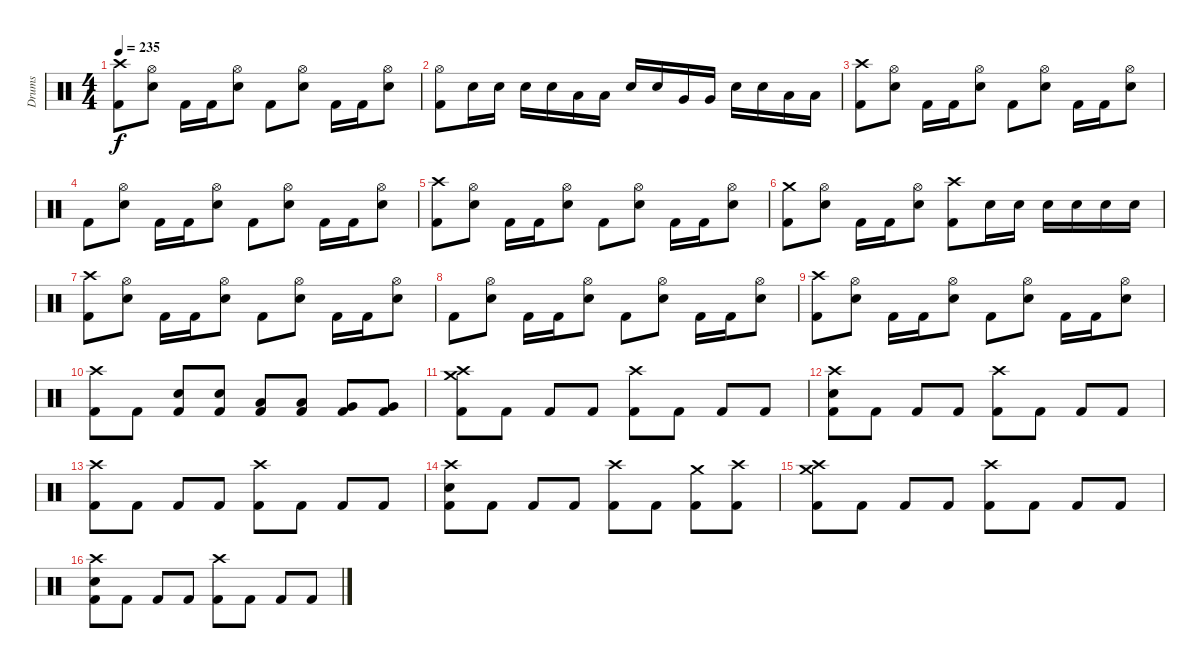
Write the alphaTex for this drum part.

\track ("Drums" "Drums") {instrument percussion}
\staff {score}
\articulation defaults
\ts (4 4)
\tempo 235
\clef neutral
\ks c
("Crash high (hit)" "Kick (hit) 2").8{dy f} ("Hi-Hat (open)" "Electric Snare (hit)").8 "Kick (hit) 2".16 "Kick (hit) 2".16 ("Hi-Hat (open)" "Electric Snare (hit)").8 "Kick (hit) 2".8 ("Hi-Hat (open)" "Electric Snare (hit)").8 "Kick (hit) 2".16 "Kick (hit) 2".16 ("Hi-Hat (open)" "Electric Snare (hit)").8 |
("Hi-Hat (open)" "Kick (hit) 2").8 "Electric Snare (hit)".16 "Electric Snare (hit)".16 "Electric Snare (hit)".16 "Electric Snare (hit)".16 "Low Tom (hit)".16 "Low Tom (hit)".16 "Electric Snare (hit)".16 "Electric Snare (hit)".16 "Very Low Tom (hit)".16 "Very Low Tom (hit)".16 "Electric Snare (hit)".16 "Electric Snare (hit)".16 "Low Floor Tom (hit)".16 "Low Floor Tom (hit)".16 |
("Crash high (hit)" "Kick (hit) 2").8 ("Hi-Hat (open)" "Electric Snare (hit)").8 "Kick (hit) 2".16 "Kick (hit) 2".16 ("Hi-Hat (open)" "Electric Snare (hit)").8 "Kick (hit) 2".8 ("Hi-Hat (open)" "Electric Snare (hit)").8 "Kick (hit) 2".16 "Kick (hit) 2".16 ("Hi-Hat (open)" "Electric Snare (hit)").8 |
"Kick (hit) 2".8 ("Hi-Hat (open)" "Electric Snare (hit)").8 "Kick (hit) 2".16 "Kick (hit) 2".16 ("Hi-Hat (open)" "Electric Snare (hit)").8 "Kick (hit) 2".8 ("Hi-Hat (open)" "Electric Snare (hit)").8 "Kick (hit) 2".16 "Kick (hit) 2".16 ("Hi-Hat (open)" "Electric Snare (hit)").8 |
("Crash high (hit)" "Kick (hit) 2").8 ("Hi-Hat (open)" "Electric Snare (hit)").8 "Kick (hit) 2".16 "Kick (hit) 2".16 ("Hi-Hat (open)" "Electric Snare (hit)").8 "Kick (hit) 2".8 ("Hi-Hat (open)" "Electric Snare (hit)").8 "Kick (hit) 2".16 "Kick (hit) 2".16 ("Hi-Hat (open)" "Electric Snare (hit)").8 |
("Crash medium (hit)" "Kick (hit) 2").8 ("Hi-Hat (open)" "Electric Snare (hit)").8 "Kick (hit) 2".16 "Kick (hit) 2".16 ("Hi-Hat (open)" "Electric Snare (hit)").8 ("Crash high (hit)" "Kick (hit) 2").8 "Electric Snare (hit)".16 "Electric Snare (hit)".16 "Electric Snare (hit)".16 "Electric Snare (hit)".16 "Electric Snare (hit)".16 "Electric Snare (hit)".16 |
("Crash high (hit)" "Kick (hit) 2").8 ("Hi-Hat (open)" "Electric Snare (hit)").8 "Kick (hit) 2".16 "Kick (hit) 2".16 ("Hi-Hat (open)" "Electric Snare (hit)").8 "Kick (hit) 2".8 ("Hi-Hat (open)" "Electric Snare (hit)").8 "Kick (hit) 2".16 "Kick (hit) 2".16 ("Hi-Hat (open)" "Electric Snare (hit)").8 |
"Kick (hit) 2".8 ("Hi-Hat (open)" "Electric Snare (hit)").8 "Kick (hit) 2".16 "Kick (hit) 2".16 ("Hi-Hat (open)" "Electric Snare (hit)").8 "Kick (hit) 2".8 ("Hi-Hat (open)" "Electric Snare (hit)").8 "Kick (hit) 2".16 "Kick (hit) 2".16 ("Hi-Hat (open)" "Electric Snare (hit)").8 |
("Crash high (hit)" "Kick (hit) 2").8 ("Hi-Hat (open)" "Electric Snare (hit)").8 "Kick (hit) 2".16 "Kick (hit) 2".16 ("Hi-Hat (open)" "Electric Snare (hit)").8 "Kick (hit) 2".8 ("Hi-Hat (open)" "Electric Snare (hit)").8 "Kick (hit) 2".16 "Kick (hit) 2".16 ("Hi-Hat (open)" "Electric Snare (hit)").8 |
("Crash high (hit)" "Kick (hit) 2").8 "Kick (hit) 2".8 ("Electric Snare (hit)" "Kick (hit) 2").8 ("Electric Snare (hit)" "Kick (hit) 2").8 ("Low Tom (hit)" "Kick (hit) 2").8 ("Low Tom (hit)" "Kick (hit) 2").8 ("Very Low Tom (hit)" "Kick (hit) 2").8 ("Very Low Tom (hit)" "Kick (hit) 2").8 |
("Crash high (hit)" "Crash medium (hit)" "Kick (hit) 2").8 "Kick (hit) 2".8 "Kick (hit) 2".8 "Kick (hit) 2".8 ("Crash high (hit)" "Kick (hit) 2").8 "Kick (hit) 2".8 "Kick (hit) 2".8 "Kick (hit) 2".8 |
("Crash high (hit)" "Electric Snare (hit)" "Kick (hit) 2").8 "Kick (hit) 2".8 "Kick (hit) 2".8 "Kick (hit) 2".8 ("Crash high (hit)" "Kick (hit) 2").8 "Kick (hit) 2".8 "Kick (hit) 2".8 "Kick (hit) 2".8 |
("Crash high (hit)" "Kick (hit) 2").8 "Kick (hit) 2".8 "Kick (hit) 2".8 "Kick (hit) 2".8 ("Crash high (hit)" "Kick (hit) 2").8 "Kick (hit) 2".8 "Kick (hit) 2".8 "Kick (hit) 2".8 |
("Crash high (hit)" "Electric Snare (hit)" "Kick (hit) 2").8 "Kick (hit) 2".8 "Kick (hit) 2".8 "Kick (hit) 2".8 ("Crash high (hit)" "Kick (hit) 2").8 "Kick (hit) 2".8 ("Crash medium (hit)" "Kick (hit) 2").8 ("Crash high (hit)" "Kick (hit) 2").8 |
("Crash high (hit)" "Crash medium (hit)" "Kick (hit) 2").8 "Kick (hit) 2".8 "Kick (hit) 2".8 "Kick (hit) 2".8 ("Crash high (hit)" "Kick (hit) 2").8 "Kick (hit) 2".8 "Kick (hit) 2".8 "Kick (hit) 2".8 |
("Crash high (hit)" "Electric Snare (hit)" "Kick (hit) 2").8 "Kick (hit) 2".8 "Kick (hit) 2".8 "Kick (hit) 2".8 ("Crash high (hit)" "Kick (hit) 2").8 "Kick (hit) 2".8 "Kick (hit) 2".8 "Kick (hit) 2".8
